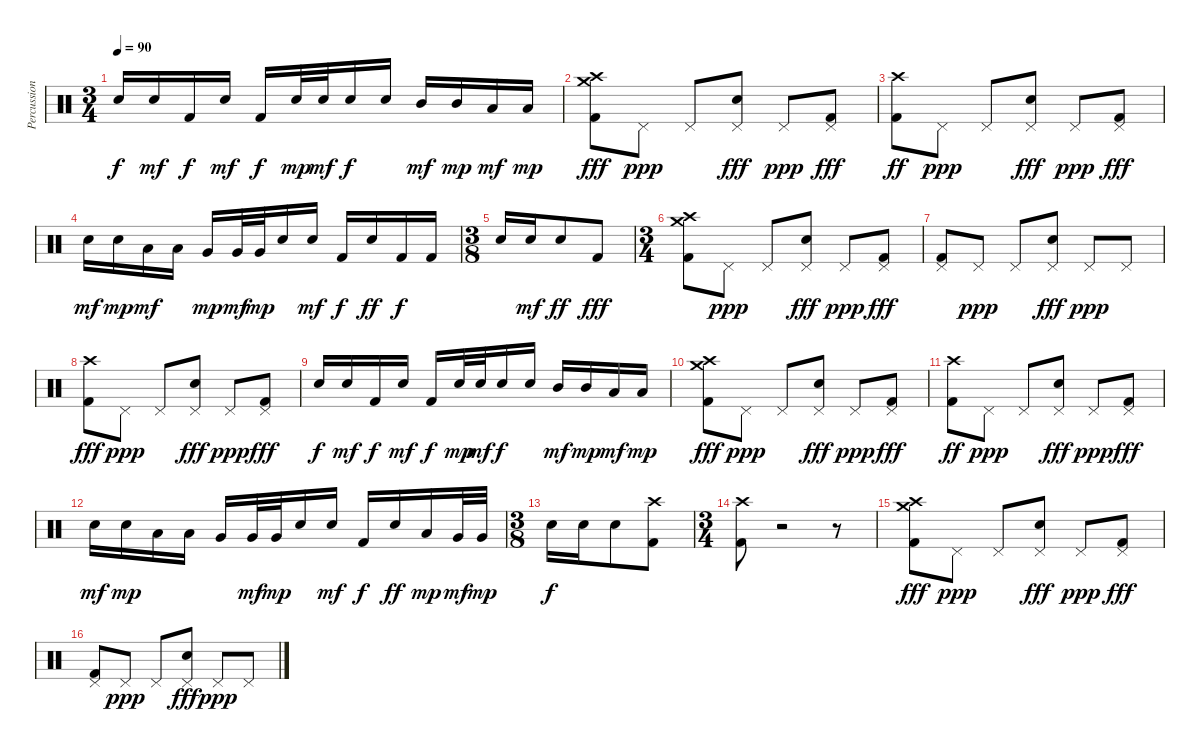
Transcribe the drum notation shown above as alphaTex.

\track ("Percussion" "Percussion") {instrument percussion}
\staff {score}
\articulation defaults
\ts (3 4)
\tempo 90
\clef neutral
\ks c "Snare (hit) 2".16{dy f} "Snare (hit) 2".16{dy mf} "Kick (hit) 2".16{dy f} "Snare (hit) 2".16{dy mf} "Kick (hit) 2".16{dy f} "Snare (hit) 2".32{dy mp} "Snare (hit) 2".32{dy mf} "Snare (hit) 2".16{dy f} "Snare (hit) 2".16 "Mid Tom (hit)".16{dy mf} "Mid Tom (hit)".16{dy mp} "Low Tom (hit)".16{dy mf} "Low Tom (hit)".16{dy mp}
|
("Crash medium (hit)" "Crash high (hit)" "Kick (hit) 2").8{dy fff} "Pedal Hi-Hat (hit)".8{dy ppp} "Pedal Hi-Hat (hit)".8 ("Pedal Hi-Hat (hit)" "Snare (hit) 2").8{dy fff} "Pedal Hi-Hat (hit)".8{dy ppp} ("Pedal Hi-Hat (hit)" "Kick (hit) 2").8{dy fff} |
("Crash high (hit)" "Kick (hit) 2").8{dy ff} "Pedal Hi-Hat (hit)".8{dy ppp} "Pedal Hi-Hat (hit)".8 ("Pedal Hi-Hat (hit)" "Snare (hit) 2").8{dy fff} "Pedal Hi-Hat (hit)".8{dy ppp} ("Pedal Hi-Hat (hit)" "Kick (hit) 2").8{dy fff} |
"Snare (hit) 2".16{dy mf} "Snare (hit) 2".16{dy mp} "Low Tom (hit)".16{dy mf} "Low Tom (hit)".16 "Very Low Tom (hit)".16{dy mp} "Very Low Tom (hit)".32{dy mf} "Very Low Tom (hit)".32{dy mp} "Snare (hit) 2".16 "Snare (hit) 2".16{dy mf} "Kick (hit) 2".16{dy f} "Snare (hit) 2".16{dy ff} "Kick (hit) 2".16{dy f} "Kick (hit) 2".16 |
\ts (3 8)
"Snare (hit) 2".16 "Snare (hit) 2".16{dy mf} "Snare (hit) 2".8{dy ff} "Kick (hit) 2".8{dy fff} |
\ts (3 4)
("Crash medium (hit)" "Crash high (hit)" "Kick (hit) 2").8 "Pedal Hi-Hat (hit)".8{dy ppp} "Pedal Hi-Hat (hit)".8 ("Pedal Hi-Hat (hit)" "Snare (hit) 2").8{dy fff} "Pedal Hi-Hat (hit)".8{dy ppp} ("Pedal Hi-Hat (hit)" "Kick (hit) 2").8{dy fff} |
("Pedal Hi-Hat (hit)" "Kick (hit) 2").8 "Pedal Hi-Hat (hit)".8{dy ppp} "Pedal Hi-Hat (hit)".8 ("Pedal Hi-Hat (hit)" "Snare (hit) 2").8{dy fff} "Pedal Hi-Hat (hit)".8{dy ppp} "Pedal Hi-Hat (hit)".8 |
("Crash high (hit)" "Kick (hit) 2").8{dy fff} "Pedal Hi-Hat (hit)".8{dy ppp} "Pedal Hi-Hat (hit)".8 ("Pedal Hi-Hat (hit)" "Snare (hit) 2").8{dy fff} "Pedal Hi-Hat (hit)".8{dy ppp} ("Pedal Hi-Hat (hit)" "Kick (hit) 2").8{dy fff} |
"Snare (hit) 2".16{dy f} "Snare (hit) 2".16{dy mf} "Kick (hit) 2".16{dy f} "Snare (hit) 2".16{dy mf} "Kick (hit) 2".16{dy f} "Snare (hit) 2".32{dy mp} "Snare (hit) 2".32{dy mf} "Snare (hit) 2".16{dy f} "Snare (hit) 2".16 "Mid Tom (hit)".16{dy mf} "Mid Tom (hit)".16{dy mp} "Low Tom (hit)".16{dy mf} "Low Tom (hit)".16{dy mp} |
("Crash medium (hit)" "Crash high (hit)" "Kick (hit) 2").8{dy fff} "Pedal Hi-Hat (hit)".8{dy ppp} "Pedal Hi-Hat (hit)".8 ("Pedal Hi-Hat (hit)" "Snare (hit) 2").8{dy fff} "Pedal Hi-Hat (hit)".8{dy ppp} ("Pedal Hi-Hat (hit)" "Kick (hit) 2").8{dy fff} |
("Crash high (hit)" "Kick (hit) 2").8{dy ff} "Pedal Hi-Hat (hit)".8{dy ppp} "Pedal Hi-Hat (hit)".8 ("Pedal Hi-Hat (hit)" "Snare (hit) 2").8{dy fff} "Pedal Hi-Hat (hit)".8{dy ppp} ("Pedal Hi-Hat (hit)" "Kick (hit) 2").8{dy fff} |
"Snare (hit) 2".16{dy mf} "Snare (hit) 2".16{dy mp} "Low Tom (hit)".16 "Low Tom (hit)".16 "Very Low Tom (hit)".16 "Very Low Tom (hit)".32{dy mf} "Very Low Tom (hit)".32{dy mp} "Snare (hit) 2".16 "Snare (hit) 2".16{dy mf} "Kick (hit) 2".16{dy f} "Snare (hit) 2".16{dy ff} "Low Tom (hit)".16{dy mp} "Very Low Tom (hit)".32{dy mf} "Very Low Tom (hit)".32{dy mp} |
\ts (3 8)
"Snare (hit) 2".16{dy f} "Snare (hit) 2".16 "Snare (hit) 2".8 ("Crash high (hit)" "Kick (hit) 2").8 |
\ts (3 4)
("Crash high (hit)" "Kick (hit) 2").8 r.2 r.8 |
("Crash medium (hit)" "Crash high (hit)" "Kick (hit) 2").8{dy fff} "Pedal Hi-Hat (hit)".8{dy ppp} "Pedal Hi-Hat (hit)".8 ("Pedal Hi-Hat (hit)" "Snare (hit) 2").8{dy fff} "Pedal Hi-Hat (hit)".8{dy ppp} ("Pedal Hi-Hat (hit)" "Kick (hit) 2").8{dy fff} |
("Pedal Hi-Hat (hit)" "Kick (hit) 2").8 "Pedal Hi-Hat (hit)".8{dy ppp} "Pedal Hi-Hat (hit)".8 ("Pedal Hi-Hat (hit)" "Snare (hit) 2").8{dy fff} "Pedal Hi-Hat (hit)".8{dy ppp} "Pedal Hi-Hat (hit)".8
